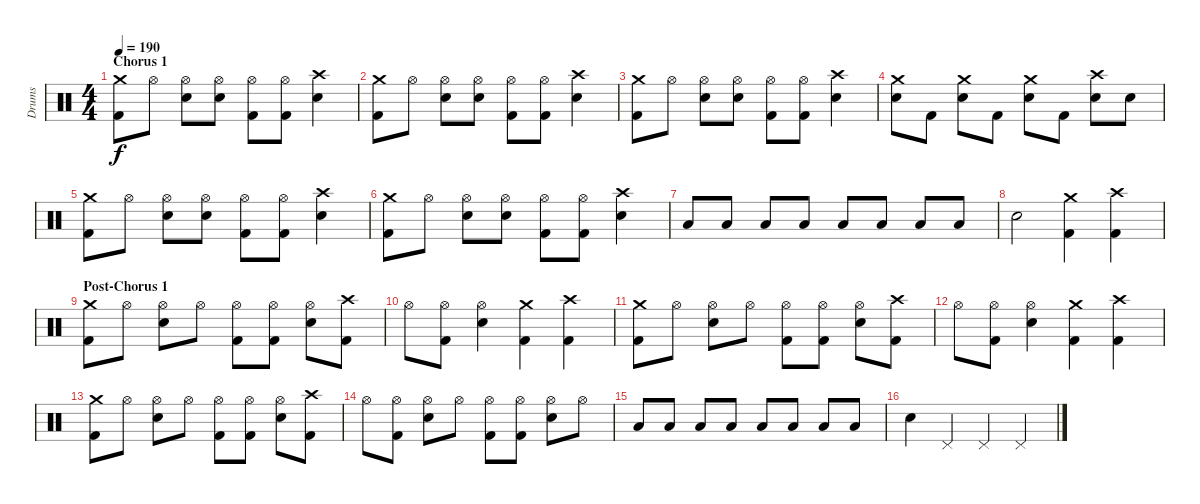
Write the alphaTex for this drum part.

\track ("Drums" "Drums") {instrument percussion}
\staff {score}
\articulation defaults
\ts (4 4)
\section ("" "Chorus 1")
\tempo 190
\clef neutral
\ks c
("Crash medium (hit)" "Kick (hit) 2").8{dy f} "Hi-Hat (open)".8 ("Hi-Hat (open)" "Electric Snare (hit)").8 ("Hi-Hat (open)" "Electric Snare (hit)").8 ("Hi-Hat (open)" "Kick (hit) 2").8 ("Hi-Hat (open)" "Kick (hit) 2").8 ("Crash high (hit)" "Electric Snare (hit)").4 |
("Crash medium (hit)" "Kick (hit) 2").8 "Hi-Hat (open)".8 ("Hi-Hat (open)" "Electric Snare (hit)").8 ("Hi-Hat (open)" "Electric Snare (hit)").8 ("Hi-Hat (open)" "Kick (hit) 2").8 ("Hi-Hat (open)" "Kick (hit) 2").8 ("Crash high (hit)" "Electric Snare (hit)").4 |
("Crash medium (hit)" "Kick (hit) 2").8 "Hi-Hat (open)".8 ("Hi-Hat (open)" "Electric Snare (hit)").8 ("Hi-Hat (open)" "Electric Snare (hit)").8 ("Hi-Hat (open)" "Kick (hit) 2").8 ("Hi-Hat (open)" "Kick (hit) 2").8 ("Crash high (hit)" "Electric Snare (hit)").4 |
("Crash medium (hit)" "Electric Snare (hit)").8 "Kick (hit) 2".8 ("Crash medium (hit)" "Electric Snare (hit)").8 "Kick (hit) 2".8 ("Crash medium (hit)" "Electric Snare (hit)").8 "Kick (hit) 2".8 ("Crash high (hit)" "Electric Snare (hit)").8 "Electric Snare (hit)".8 |
("Crash medium (hit)" "Kick (hit) 2").8 "Hi-Hat (open)".8 ("Hi-Hat (open)" "Electric Snare (hit)").8 ("Hi-Hat (open)" "Electric Snare (hit)").8 ("Hi-Hat (open)" "Kick (hit) 2").8 ("Hi-Hat (open)" "Kick (hit) 2").8 ("Crash high (hit)" "Electric Snare (hit)").4 |
("Crash medium (hit)" "Kick (hit) 2").8 "Hi-Hat (open)".8 ("Hi-Hat (open)" "Electric Snare (hit)").8 ("Hi-Hat (open)" "Electric Snare (hit)").8 ("Hi-Hat (open)" "Kick (hit) 2").8 ("Hi-Hat (open)" "Kick (hit) 2").8 ("Crash high (hit)" "Electric Snare (hit)").4 |
"Low Tom (hit)".8 "Low Tom (hit)".8 "Low Tom (hit)".8 "Low Tom (hit)".8 "Low Tom (hit)".8 "Low Tom (hit)".8 "Low Tom (hit)".8 "Low Tom (hit)".8 |
"Electric Snare (hit)".2 ("Crash medium (hit)" "Kick (hit) 2").4 ("Crash high (hit)" "Kick (hit) 2").4 |
\section ("" "Post-Chorus 1")
("Crash medium (hit)" "Kick (hit) 2").8 "Hi-Hat (open)".8 ("Hi-Hat (open)" "Electric Snare (hit)").8 "Hi-Hat (open)".8 ("Hi-Hat (open)" "Kick (hit) 2").8 ("Hi-Hat (open)" "Kick (hit) 2").8 ("Hi-Hat (open)" "Electric Snare (hit)").8 ("Crash high (hit)" "Kick (hit) 2").8 |
"Hi-Hat (open)".8 ("Hi-Hat (open)" "Kick (hit) 2").8 ("Hi-Hat (open)" "Electric Snare (hit)").4 ("Crash medium (hit)" "Kick (hit) 2").4 ("Crash high (hit)" "Kick (hit) 2").4 |
("Crash medium (hit)" "Kick (hit) 2").8 "Hi-Hat (open)".8 ("Hi-Hat (open)" "Electric Snare (hit)").8 "Hi-Hat (open)".8 ("Hi-Hat (open)" "Kick (hit) 2").8 ("Hi-Hat (open)" "Kick (hit) 2").8 ("Hi-Hat (open)" "Electric Snare (hit)").8 ("Crash high (hit)" "Kick (hit) 2").8 |
"Hi-Hat (open)".8 ("Hi-Hat (open)" "Kick (hit) 2").8 ("Hi-Hat (open)" "Electric Snare (hit)").4 ("Crash medium (hit)" "Kick (hit) 2").4 ("Crash high (hit)" "Kick (hit) 2").4 |
("Crash medium (hit)" "Kick (hit) 2").8 "Hi-Hat (open)".8 ("Hi-Hat (open)" "Electric Snare (hit)").8 "Hi-Hat (open)".8 ("Hi-Hat (open)" "Kick (hit) 2").8 ("Hi-Hat (open)" "Kick (hit) 2").8 ("Hi-Hat (open)" "Electric Snare (hit)").8 ("Crash high (hit)" "Kick (hit) 2").8 |
"Hi-Hat (open)".8 ("Hi-Hat (open)" "Kick (hit) 2").8 ("Hi-Hat (open)" "Electric Snare (hit)").8 "Hi-Hat (open)".8 ("Hi-Hat (open)" "Kick (hit) 2").8 ("Hi-Hat (open)" "Kick (hit) 2").8 ("Hi-Hat (open)" "Electric Snare (hit)").8 "Hi-Hat (open)".8 |
"Low Tom (hit)".8 "Low Tom (hit)".8 "Low Tom (hit)".8 "Low Tom (hit)".8 "Low Tom (hit)".8 "Low Tom (hit)".8 "Low Tom (hit)".8 "Low Tom (hit)".8 |
"Electric Snare (hit)".4 "Pedal Hi-Hat (hit)".4 "Pedal Hi-Hat (hit)".4 "Pedal Hi-Hat (hit)".4
